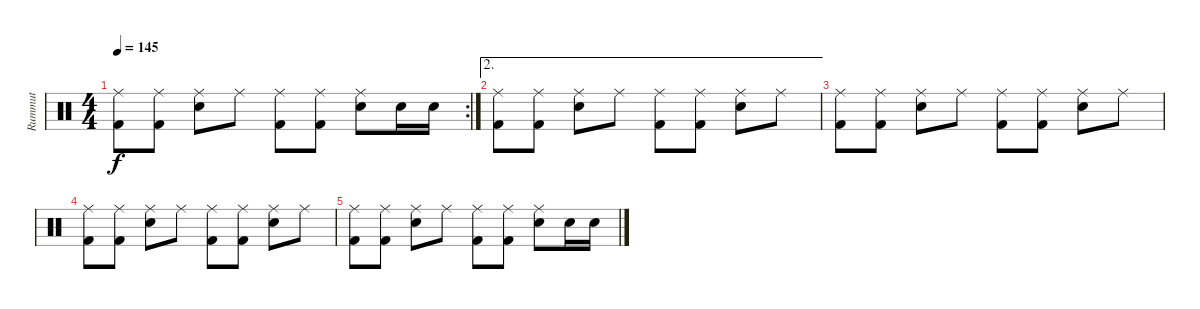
\track ("Rummut" "Rummut") {instrument percussion}
\staff {score}
\articulation defaults
\rc 2
\ts (4 4)
\tempo 145
\clef neutral
\ks c
("Ride (middle)" "Kick (hit) 2").8{dy f} ("Ride (middle)" "Kick (hit) 2").8 ("Ride (middle)" "Electric Snare (hit)").8 "Ride (middle)".8 ("Ride (middle)" "Kick (hit) 2").8 ("Ride (middle)" "Kick (hit) 2").8 ("Ride (middle)" "Electric Snare (hit)").8 "Electric Snare (hit)".16 "Electric Snare (hit)".16 |
\ae 2
("Ride (middle)" "Kick (hit) 2").8{volume 8} ("Ride (middle)" "Kick (hit) 2").8 ("Ride (middle)" "Electric Snare (hit)").8 "Ride (middle)".8 ("Ride (middle)" "Kick (hit) 2").8 ("Ride (middle)" "Kick (hit) 2").8 ("Ride (middle)" "Electric Snare (hit)").8 "Ride (middle)".8 |
("Ride (middle)" "Kick (hit) 2").8 ("Ride (middle)" "Kick (hit) 2").8 ("Ride (middle)" "Electric Snare (hit)").8 "Ride (middle)".8 ("Ride (middle)" "Kick (hit) 2").8 ("Ride (middle)" "Kick (hit) 2").8 ("Ride (middle)" "Electric Snare (hit)").8 "Ride (middle)".8 |
("Ride (middle)" "Kick (hit) 2").8{volume 0} ("Ride (middle)" "Kick (hit) 2").8 ("Ride (middle)" "Electric Snare (hit)").8 "Ride (middle)".8 ("Ride (middle)" "Kick (hit) 2").8 ("Ride (middle)" "Kick (hit) 2").8 ("Ride (middle)" "Electric Snare (hit)").8 "Ride (middle)".8 |
("Ride (middle)" "Kick (hit) 2").8 ("Ride (middle)" "Kick (hit) 2").8 ("Ride (middle)" "Electric Snare (hit)").8 "Ride (middle)".8 ("Ride (middle)" "Kick (hit) 2").8 ("Ride (middle)" "Kick (hit) 2").8 ("Ride (middle)" "Electric Snare (hit)").8 "Electric Snare (hit)".16 "Electric Snare (hit)".16
